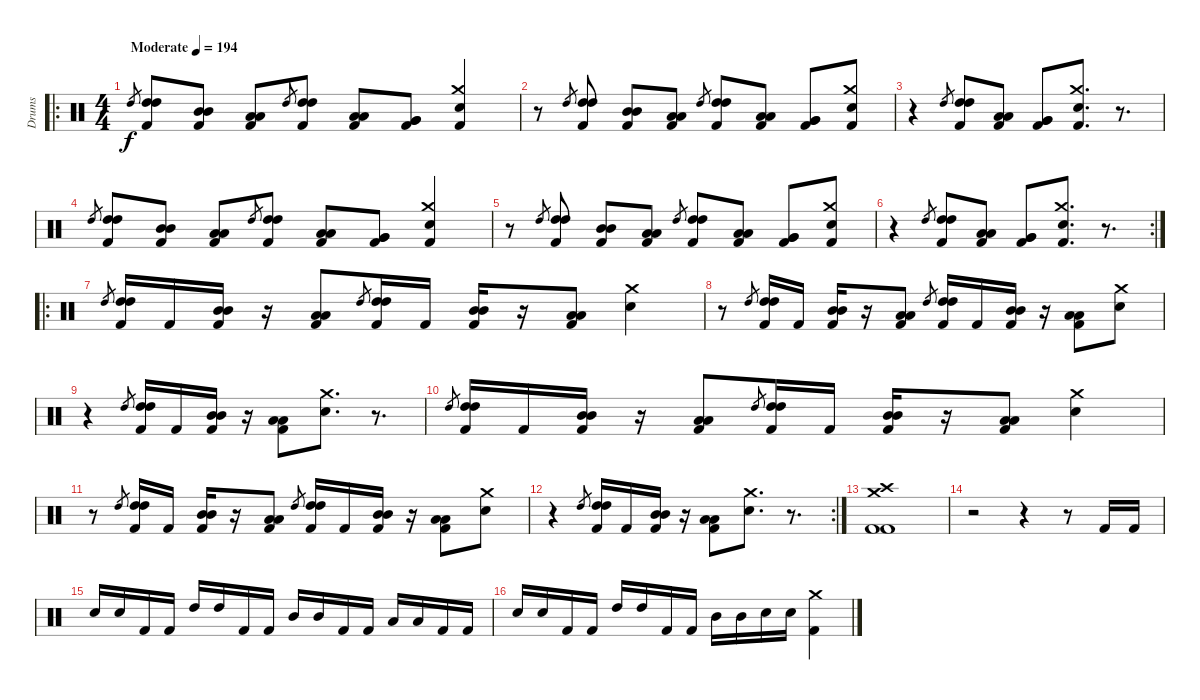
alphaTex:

\track ("Drums" "Drums") {instrument percussion}
\staff {score}
\articulation defaults
\ro
\ts (4 4)
\tempo (194 "Moderate")
\clef neutral
\ks c "High Tom (hit)".8{gr dy f}
("High Tom (hit)" "High Tom (hit)" "Kick (hit) 2").8 ("Mid Tom (hit)" "Mid Tom (hit)" "Kick (hit) 2").8 ("Low Tom (hit)" "Low Tom (hit)" "Kick (hit) 2").8 "High Tom (hit)".8{gr} ("High Tom (hit)" "High Tom (hit)" "Kick (hit) 2").8 ("Low Tom (hit)" "Low Tom (hit)" "Kick (hit) 2").8 ("Very Low Tom (hit)" "Very Low Tom (hit)" "Kick (hit) 2").8 ("Crash medium (hit)" "Electric Snare (hit)" "Kick (hit) 2").4 |
r.8 "High Tom (hit)".8{gr} ("High Tom (hit)" "High Tom (hit)" "Kick (hit) 2").8 ("Mid Tom (hit)" "Mid Tom (hit)" "Kick (hit) 2").8 ("Low Tom (hit)" "Low Tom (hit)" "Kick (hit) 2").8 "High Tom (hit)".8{gr} ("High Tom (hit)" "High Tom (hit)" "Kick (hit) 2").8 ("Low Tom (hit)" "Low Tom (hit)" "Kick (hit) 2").8 ("Very Low Tom (hit)" "Very Low Tom (hit)" "Kick (hit) 2").8 ("Crash medium (hit)" "Electric Snare (hit)" "Kick (hit) 2").8 |
r.4 "High Tom (hit)".8{gr} ("High Tom (hit)" "High Tom (hit)" "Kick (hit) 2").8 ("Low Tom (hit)" "Low Tom (hit)" "Kick (hit) 2").8 ("Very Low Tom (hit)" "Very Low Tom (hit)" "Kick (hit) 2").8 ("Crash medium (hit)" "Electric Snare (hit)" "Kick (hit) 2").8{d} r.8{d} |
"High Tom (hit)".8{gr} ("High Tom (hit)" "High Tom (hit)" "Kick (hit) 2").8 ("Mid Tom (hit)" "Mid Tom (hit)" "Kick (hit) 2").8 ("Low Tom (hit)" "Low Tom (hit)" "Kick (hit) 2").8 "High Tom (hit)".8{gr} ("High Tom (hit)" "High Tom (hit)" "Kick (hit) 2").8 ("Low Tom (hit)" "Low Tom (hit)" "Kick (hit) 2").8 ("Very Low Tom (hit)" "Very Low Tom (hit)" "Kick (hit) 2").8 ("Crash medium (hit)" "Electric Snare (hit)" "Kick (hit) 2").4 |
r.8 "High Tom (hit)".8{gr} ("High Tom (hit)" "High Tom (hit)" "Kick (hit) 2").8 ("Mid Tom (hit)" "Mid Tom (hit)" "Kick (hit) 2").8 ("Low Tom (hit)" "Low Tom (hit)" "Kick (hit) 2").8 "High Tom (hit)".8{gr} ("High Tom (hit)" "High Tom (hit)" "Kick (hit) 2").8 ("Low Tom (hit)" "Low Tom (hit)" "Kick (hit) 2").8 ("Very Low Tom (hit)" "Very Low Tom (hit)" "Kick (hit) 2").8 ("Crash medium (hit)" "Electric Snare (hit)" "Kick (hit) 2").8 |
\rc 2
r.4 "High Tom (hit)".8{gr} ("High Tom (hit)" "High Tom (hit)" "Kick (hit) 2").8 ("Low Tom (hit)" "Low Tom (hit)" "Kick (hit) 2").8 ("Very Low Tom (hit)" "Very Low Tom (hit)" "Kick (hit) 2").8 ("Crash medium (hit)" "Electric Snare (hit)" "Kick (hit) 2").8{d} r.8{d} |
\ro "High Tom (hit)".8{gr}
("High Tom (hit)" "High Tom (hit)" "Kick (hit) 2").16 "Kick (hit) 2".16 ("Mid Tom (hit)" "Mid Tom (hit)" "Kick (hit) 2").16 r.16 ("Low Tom (hit)" "Low Tom (hit)" "Kick (hit) 2").8 "High Tom (hit)".8{gr} ("High Tom (hit)" "High Tom (hit)" "Kick (hit) 2").16 "Kick (hit) 2".16 ("Mid Tom (hit)" "Mid Tom (hit)" "Kick (hit) 2").16 r.16 ("Low Tom (hit)" "Low Tom (hit)" "Kick (hit) 2").8 ("Crash medium (hit)" "Electric Snare (hit)").4 |
r.8 "High Tom (hit)".8{gr} ("High Tom (hit)" "High Tom (hit)" "Kick (hit) 2").16 "Kick (hit) 2".16 ("Mid Tom (hit)" "Mid Tom (hit)" "Kick (hit) 2").16 r.16 ("Low Tom (hit)" "Low Tom (hit)" "Kick (hit) 2").8 "High Tom (hit)".8{gr} ("High Tom (hit)" "High Tom (hit)" "Kick (hit) 2").16 "Kick (hit) 2".16 ("Mid Tom (hit)" "Mid Tom (hit)" "Kick (hit) 2").16 r.16 ("Low Tom (hit)" "Low Tom (hit)" "Kick (hit) 2").8 ("Crash medium (hit)" "Electric Snare (hit)").8 |
r.4 "High Tom (hit)".8{gr} ("High Tom (hit)" "High Tom (hit)" "Kick (hit) 2").16 "Kick (hit) 2".16 ("Mid Tom (hit)" "Mid Tom (hit)" "Kick (hit) 2").16 r.16 ("Low Tom (hit)" "Low Tom (hit)" "Kick (hit) 2").8 ("Crash medium (hit)" "Electric Snare (hit)").8{d} r.8{d} |
"High Tom (hit)".8{gr} ("High Tom (hit)" "High Tom (hit)" "Kick (hit) 2").16 "Kick (hit) 2".16 ("Mid Tom (hit)" "Mid Tom (hit)" "Kick (hit) 2").16 r.16 ("Low Tom (hit)" "Low Tom (hit)" "Kick (hit) 2").8 "High Tom (hit)".8{gr} ("High Tom (hit)" "High Tom (hit)" "Kick (hit) 2").16 "Kick (hit) 2".16 ("Mid Tom (hit)" "Mid Tom (hit)" "Kick (hit) 2").16 r.16 ("Low Tom (hit)" "Low Tom (hit)" "Kick (hit) 2").8 ("Crash medium (hit)" "Electric Snare (hit)").4 |
r.8 "High Tom (hit)".8{gr} ("High Tom (hit)" "High Tom (hit)" "Kick (hit) 2").16 "Kick (hit) 2".16 ("Mid Tom (hit)" "Mid Tom (hit)" "Kick (hit) 2").16 r.16 ("Low Tom (hit)" "Low Tom (hit)" "Kick (hit) 2").8 "High Tom (hit)".8{gr} ("High Tom (hit)" "High Tom (hit)" "Kick (hit) 2").16 "Kick (hit) 2".16 ("Mid Tom (hit)" "Mid Tom (hit)" "Kick (hit) 2").16 r.16 ("Low Tom (hit)" "Low Tom (hit)" "Kick (hit) 2").8 ("Crash medium (hit)" "Electric Snare (hit)").8 |
\rc 2
r.4 "High Tom (hit)".8{gr} ("High Tom (hit)" "High Tom (hit)" "Kick (hit) 2").16 "Kick (hit) 2".16 ("Mid Tom (hit)" "Mid Tom (hit)" "Kick (hit) 2").16 r.16 ("Low Tom (hit)" "Low Tom (hit)" "Kick (hit) 2").8 ("Crash medium (hit)" "Electric Snare (hit)").8{d} r.8{d} |
("Crash high (hit)" "Crash medium (hit)" "Kick (hit) 2" "Kick (hit) 2").1 |
r.2 r.4 r.8 "Kick (hit) 2".16 "Kick (hit) 2".16 |
"Electric Snare (hit)".16 "Electric Snare (hit)".16 "Kick (hit) 2".16 "Kick (hit) 2".16 "High Tom (hit)".16 "High Tom (hit)".16 "Kick (hit) 2".16 "Kick (hit) 2".16 "Mid Tom (hit)".16 "Mid Tom (hit)".16 "Kick (hit) 2".16 "Kick (hit) 2".16 "Low Tom (hit)".16 "Low Tom (hit)".16 "Kick (hit) 2".16 "Kick (hit) 2".16 |
"Electric Snare (hit)".16 "Electric Snare (hit)".16 "Kick (hit) 2".16 "Kick (hit) 2".16 "High Tom (hit)".16 "High Tom (hit)".16 "Kick (hit) 2".16 "Kick (hit) 2".16 "Mid Tom (hit)".16 "Mid Tom (hit)".16 "Electric Snare (hit)".16 "Electric Snare (hit)".16 ("Crash medium (hit)" "Kick (hit) 2").4
